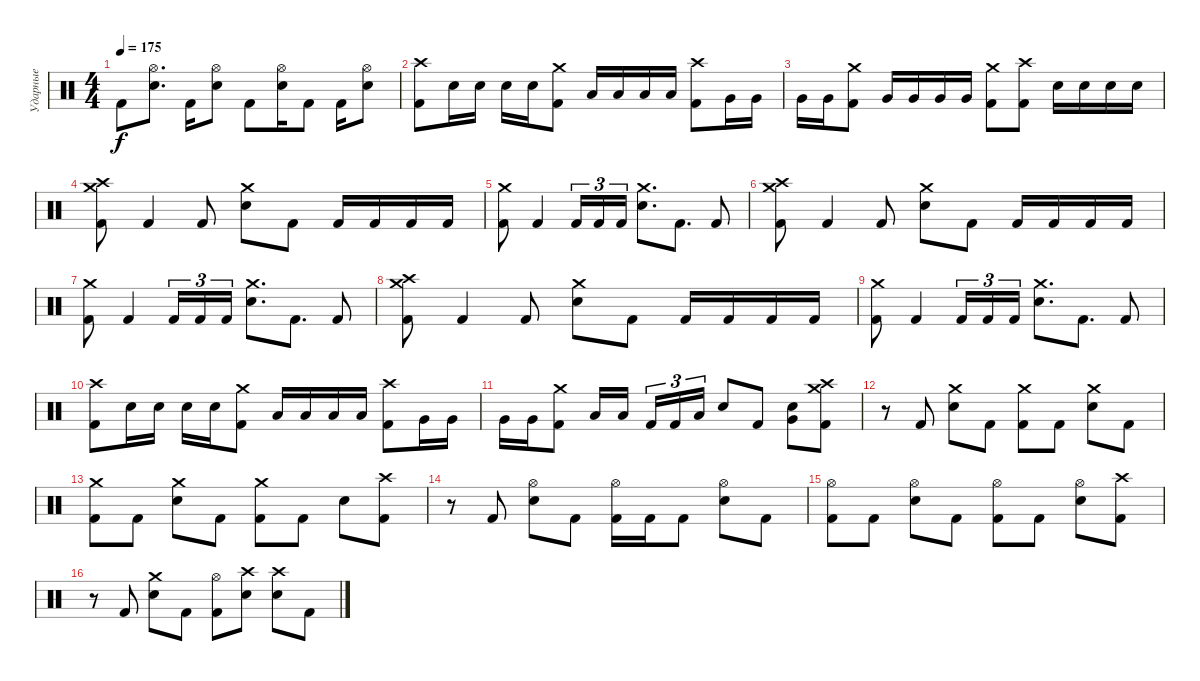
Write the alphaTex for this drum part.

\track ("Ударные" "Ударные") {instrument percussion}
\staff {score}
\articulation defaults
\ts (4 4)
\tempo 175
\clef neutral
\ks c "Kick (hit) 2".8{dy f}
("Hi-Hat (open)" "Electric Snare (hit)").8{d} "Kick (hit) 2".16 ("Hi-Hat (open)" "Electric Snare (hit)").8 "Kick (hit) 2".8 ("Hi-Hat (open)" "Electric Snare (hit)").16 "Kick (hit) 2".8 "Kick (hit) 2".16 ("Hi-Hat (open)" "Electric Snare (hit)").8 |
("Crash high (hit)" "Kick (hit) 2").8 "Electric Snare (hit)".16 "Electric Snare (hit)".16 "Electric Snare (hit)".16 "Electric Snare (hit)".16 ("Crash medium (hit)" "Kick (hit) 2").8 "Low Tom (hit)".16 "Low Tom (hit)".16 "Low Tom (hit)".16 "Low Tom (hit)".16 ("Crash high (hit)" "Kick (hit) 2").8 "Very Low Tom (hit)".16 "Very Low Tom (hit)".16 |
"Very Low Tom (hit)".16 "Very Low Tom (hit)".16 ("Crash medium (hit)" "Kick (hit) 2").8 "Very Low Tom (hit)".16 "Very Low Tom (hit)".16 "Very Low Tom (hit)".16 "Very Low Tom (hit)".16 ("Crash medium (hit)" "Kick (hit) 2").8 ("Crash high (hit)" "Kick (hit) 2").8 "Electric Snare (hit)".16 "Electric Snare (hit)".16 "Electric Snare (hit)".16 "Electric Snare (hit)".16 |
("Crash high (hit)" "Crash medium (hit)" "Kick (hit) 2").8 "Kick (hit) 2".4 "Kick (hit) 2".8 ("Crash medium (hit)" "Electric Snare (hit)").8 "Kick (hit) 2".8 "Kick (hit) 2".16 "Kick (hit) 2".16 "Kick (hit) 2".16 "Kick (hit) 2".16 |
("Crash medium (hit)" "Kick (hit) 2").8 "Kick (hit) 2".4 "Kick (hit) 2".16{tu (3 2)} "Kick (hit) 2".16{tu (3 2)} "Kick (hit) 2".16{tu (3 2)} ("Crash medium (hit)" "Electric Snare (hit)").8{d} "Kick (hit) 2".8{d} "Kick (hit) 2".8 |
("Crash high (hit)" "Crash medium (hit)" "Kick (hit) 2").8 "Kick (hit) 2".4 "Kick (hit) 2".8 ("Crash medium (hit)" "Electric Snare (hit)").8 "Kick (hit) 2".8 "Kick (hit) 2".16 "Kick (hit) 2".16 "Kick (hit) 2".16 "Kick (hit) 2".16 |
("Crash medium (hit)" "Kick (hit) 2").8 "Kick (hit) 2".4 "Kick (hit) 2".16{tu (3 2)} "Kick (hit) 2".16{tu (3 2)} "Kick (hit) 2".16{tu (3 2)} ("Crash medium (hit)" "Electric Snare (hit)").8{d} "Kick (hit) 2".8{d} "Kick (hit) 2".8 |
("Crash high (hit)" "Crash medium (hit)" "Kick (hit) 2").8 "Kick (hit) 2".4 "Kick (hit) 2".8 ("Crash medium (hit)" "Electric Snare (hit)").8 "Kick (hit) 2".8 "Kick (hit) 2".16 "Kick (hit) 2".16 "Kick (hit) 2".16 "Kick (hit) 2".16 |
("Crash medium (hit)" "Kick (hit) 2").8 "Kick (hit) 2".4 "Kick (hit) 2".16{tu (3 2)} "Kick (hit) 2".16{tu (3 2)} "Kick (hit) 2".16{tu (3 2)} ("Crash medium (hit)" "Electric Snare (hit)").8{d} "Kick (hit) 2".8{d} "Kick (hit) 2".8 |
("Crash high (hit)" "Kick (hit) 2").8 "Electric Snare (hit)".16 "Electric Snare (hit)".16 "Electric Snare (hit)".16 "Electric Snare (hit)".16 ("Crash medium (hit)" "Kick (hit) 2").8 "Low Tom (hit)".16 "Low Tom (hit)".16 "Low Tom (hit)".16 "Low Tom (hit)".16 ("Crash high (hit)" "Kick (hit) 2").8 "Very Low Tom (hit)".16 "Very Low Tom (hit)".16 |
"Very Low Tom (hit)".16 "Very Low Tom (hit)".16 ("Crash medium (hit)" "Kick (hit) 2").8 "Low Tom (hit)".16 "Low Tom (hit)".16{beam splitsecondary} "Kick (hit) 2".16{tu (3 2)} "Kick (hit) 2".16{tu (3 2)} "Low Tom (hit)".16{tu (3 2)} "Electric Snare (hit)".8 "Kick (hit) 2".8 ("Very Low Tom (hit)" "Electric Snare (hit)").8 ("Crash high (hit)" "Crash medium (hit)" "Kick (hit) 2").8 |
r.8 "Kick (hit) 2".8 ("Crash medium (hit)" "Electric Snare (hit)").8 "Kick (hit) 2".8 ("Crash medium (hit)" "Kick (hit) 2").8 "Kick (hit) 2".8 ("Crash medium (hit)" "Electric Snare (hit)").8 "Kick (hit) 2".8 |
("Crash medium (hit)" "Kick (hit) 2").8 "Kick (hit) 2".8 ("Crash medium (hit)" "Electric Snare (hit)").8 "Kick (hit) 2".8 ("Crash medium (hit)" "Kick (hit) 2").8 "Kick (hit) 2".8 "Electric Snare (hit)".8 ("Crash high (hit)" "Kick (hit) 2").8 |
r.8 "Kick (hit) 2".8 ("Hi-Hat (open)" "Electric Snare (hit)").8 "Kick (hit) 2".8 ("Hi-Hat (open)" "Kick (hit) 2").16 "Kick (hit) 2".16 "Kick (hit) 2".8 ("Hi-Hat (open)" "Electric Snare (hit)").8 "Kick (hit) 2".8 |
("Hi-Hat (open)" "Kick (hit) 2").8 "Kick (hit) 2".8 ("Hi-Hat (open)" "Electric Snare (hit)").8 "Kick (hit) 2".8 ("Hi-Hat (open)" "Kick (hit) 2").8 "Kick (hit) 2".8 ("Hi-Hat (open)" "Electric Snare (hit)").8 ("Crash high (hit)" "Kick (hit) 2").8 |
r.8 "Kick (hit) 2".8 ("Crash medium (hit)" "Electric Snare (hit)").8 "Kick (hit) 2".8 ("Hi-Hat (open)" "Kick (hit) 2").8 ("Crash high (hit)" "Electric Snare (hit)").8 ("Crash high (hit)" "Electric Snare (hit)").8 "Kick (hit) 2".8
